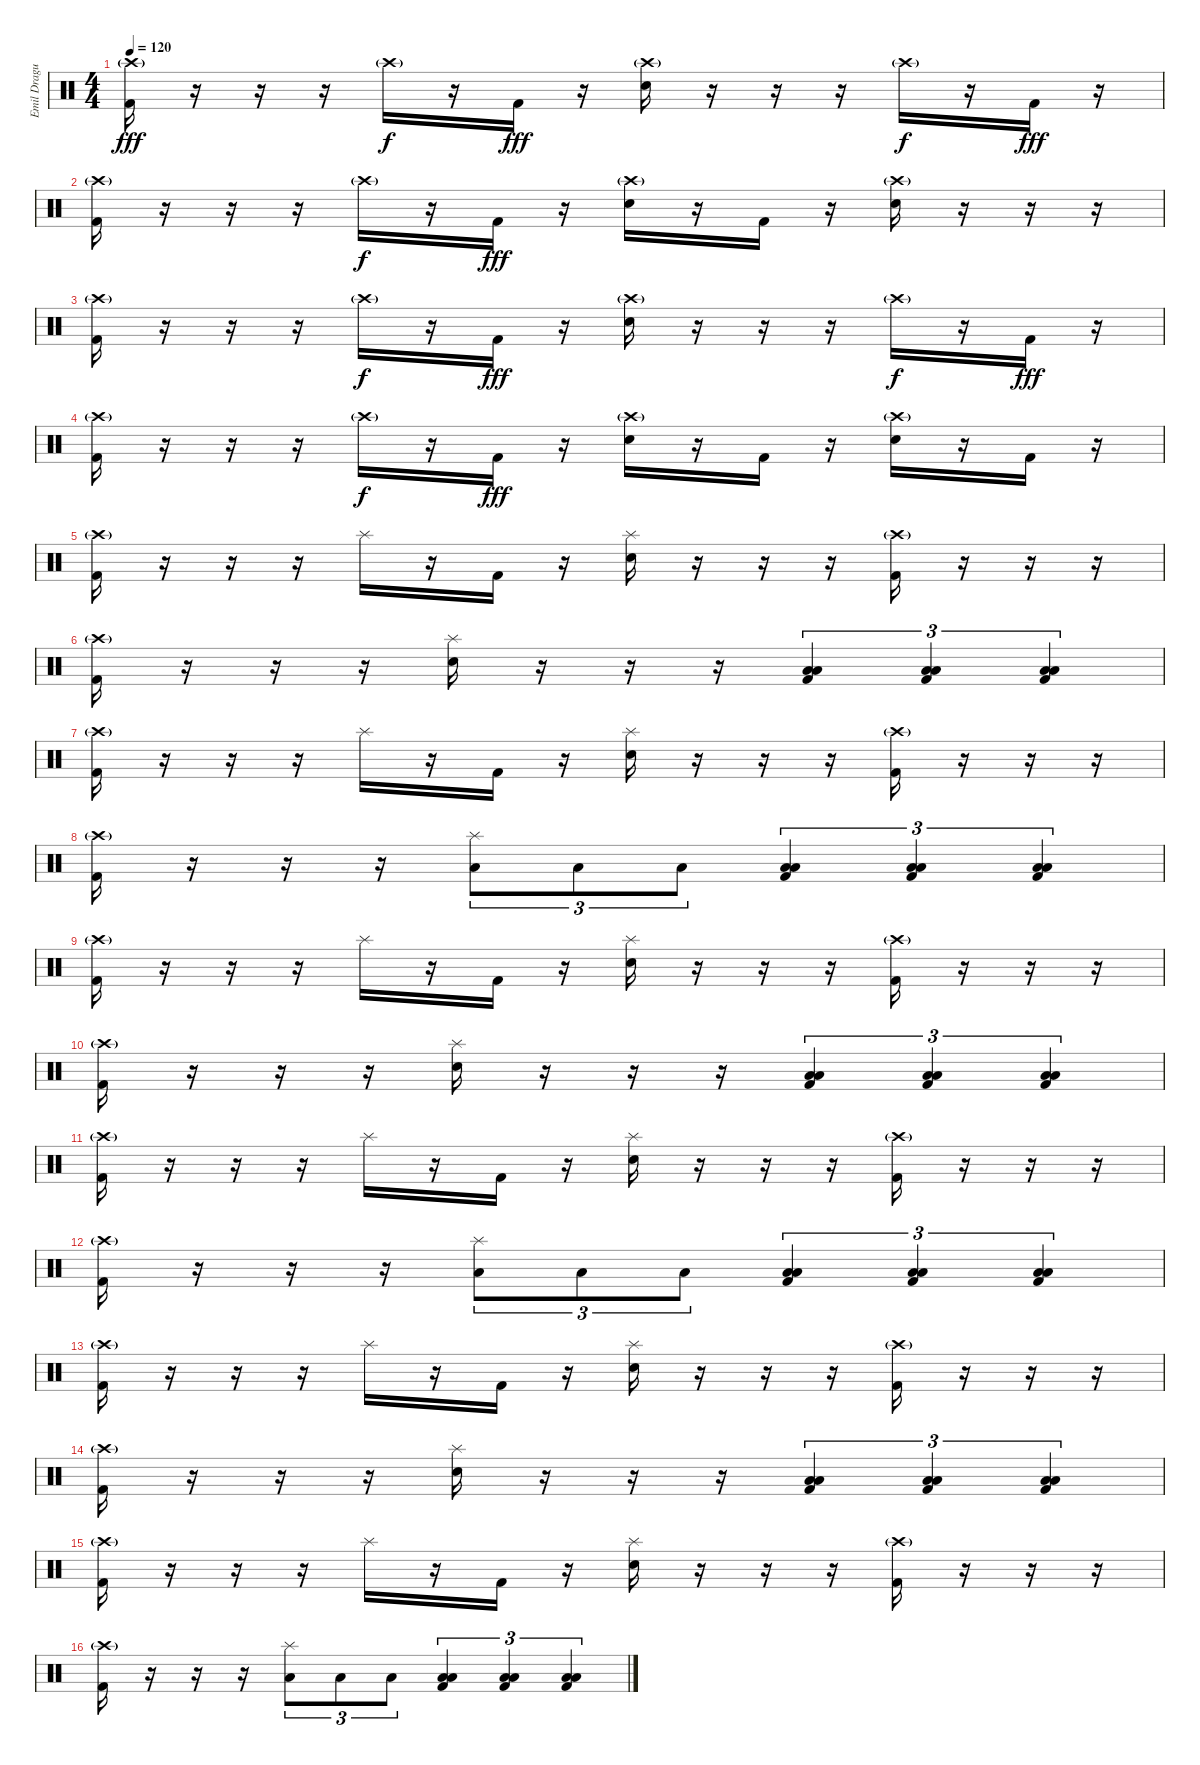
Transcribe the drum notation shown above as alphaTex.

\track ("Emil Dragutinovic" "Emil Dragu") {instrument percussion}
\staff {score}
\articulation defaults
\ts (4 4)
\tempo 120
\clef neutral
\ks c
("Crash high (hit)"{g} "Kick (hit) 2").16{dy fff} r.16 r.16 r.16 "Crash high (hit)"{g}.16{dy f} r.16 "Kick (hit) 2".16{dy fff} r.16 ("Crash high (hit)"{g} "Electric Snare (hit)").16 r.16 r.16 r.16 "Crash high (hit)"{g}.16{dy f} r.16 "Kick (hit) 2".16{dy fff} r.16 |
("Crash high (hit)"{g} "Kick (hit) 2").16 r.16 r.16 r.16 "Crash high (hit)"{g}.16{dy f} r.16 "Kick (hit) 2".16{dy fff} r.16 ("Crash high (hit)"{g} "Electric Snare (hit)").16 r.16 "Kick (hit) 2".16 r.16 ("Crash high (hit)"{g} "Electric Snare (hit)").16 r.16 r.16 r.16 |
("Crash high (hit)"{g} "Kick (hit) 2").16 r.16 r.16 r.16 "Crash high (hit)"{g}.16{dy f} r.16 "Kick (hit) 2".16{dy fff} r.16 ("Crash high (hit)"{g} "Electric Snare (hit)").16 r.16 r.16 r.16 "Crash high (hit)"{g}.16{dy f} r.16 "Kick (hit) 2".16{dy fff} r.16 |
("Crash high (hit)"{g} "Kick (hit) 2").16 r.16 r.16 r.16 "Crash high (hit)"{g}.16{dy f} r.16 "Kick (hit) 2".16{dy fff} r.16 ("Crash high (hit)"{g} "Electric Snare (hit)").16 r.16 "Kick (hit) 2".16 r.16 ("Crash high (hit)"{g} "Electric Snare (hit)").16 r.16 "Kick (hit) 2".16 r.16 |
("Crash high (hit)"{g} "Kick (hit) 2").16 r.16 r.16 r.16 "Splash (hit)".16 r.16 "Kick (hit) 2".16 r.16 ("Splash (hit)" "Electric Snare (hit)").16 r.16 r.16 r.16 ("Crash high (hit)"{g} "Kick (hit) 2").16 r.16 r.16 r.16 |
("Crash high (hit)"{g} "Kick (hit) 2").16 r.16 r.16 r.16 ("Splash (hit)" "Electric Snare (hit)").16 r.16 r.16 r.16 ("Low Tom (hit)" "Low Floor Tom (hit)" "Kick (hit) 2").4{tu (3 2)} ("Low Tom (hit)" "Low Floor Tom (hit)" "Kick (hit) 2").4{tu (3 2)} ("Low Tom (hit)" "Low Floor Tom (hit)" "Kick (hit) 2").4{tu (3 2)} |
("Crash high (hit)"{g} "Kick (hit) 2").16 r.16 r.16 r.16 "Splash (hit)".16 r.16 "Kick (hit) 2".16 r.16 ("Splash (hit)" "Electric Snare (hit)").16 r.16 r.16 r.16 ("Crash high (hit)"{g} "Kick (hit) 2").16 r.16 r.16 r.16 |
("Crash high (hit)"{g} "Kick (hit) 2").16 r.16 r.16 r.16 ("Splash (hit)" "Low Tom (hit)").8{tu (3 2)} "Low Floor Tom (hit)".8{tu (3 2)} "Low Floor Tom (hit)".8{tu (3 2)} ("Low Tom (hit)" "Low Floor Tom (hit)" "Kick (hit) 2").4{tu (3 2)} ("Low Tom (hit)" "Low Floor Tom (hit)" "Kick (hit) 2").4{tu (3 2)} ("Low Tom (hit)" "Low Floor Tom (hit)" "Kick (hit) 2").4{tu (3 2)} |
("Crash high (hit)"{g} "Kick (hit) 2").16 r.16 r.16 r.16 "Splash (hit)".16 r.16 "Kick (hit) 2".16 r.16 ("Splash (hit)" "Electric Snare (hit)").16 r.16 r.16 r.16 ("Crash high (hit)"{g} "Kick (hit) 2").16 r.16 r.16 r.16 |
("Crash high (hit)"{g} "Kick (hit) 2").16 r.16 r.16 r.16 ("Splash (hit)" "Electric Snare (hit)").16 r.16 r.16 r.16 ("Low Tom (hit)" "Low Floor Tom (hit)" "Kick (hit) 2").4{tu (3 2)} ("Low Tom (hit)" "Low Floor Tom (hit)" "Kick (hit) 2").4{tu (3 2)} ("Low Tom (hit)" "Low Floor Tom (hit)" "Kick (hit) 2").4{tu (3 2)} |
("Crash high (hit)"{g} "Kick (hit) 2").16 r.16 r.16 r.16 "Splash (hit)".16 r.16 "Kick (hit) 2".16 r.16 ("Splash (hit)" "Electric Snare (hit)").16 r.16 r.16 r.16 ("Crash high (hit)"{g} "Kick (hit) 2").16 r.16 r.16 r.16 |
("Crash high (hit)"{g} "Kick (hit) 2").16 r.16 r.16 r.16 ("Splash (hit)" "Low Tom (hit)").8{tu (3 2)} "Low Floor Tom (hit)".8{tu (3 2)} "Low Floor Tom (hit)".8{tu (3 2)} ("Low Tom (hit)" "Low Floor Tom (hit)" "Kick (hit) 2").4{tu (3 2)} ("Low Tom (hit)" "Low Floor Tom (hit)" "Kick (hit) 2").4{tu (3 2)} ("Low Tom (hit)" "Low Floor Tom (hit)" "Kick (hit) 2").4{tu (3 2)} |
("Crash high (hit)"{g} "Kick (hit) 2").16 r.16 r.16 r.16 "Splash (hit)".16 r.16 "Kick (hit) 2".16 r.16 ("Splash (hit)" "Electric Snare (hit)").16 r.16 r.16 r.16 ("Crash high (hit)"{g} "Kick (hit) 2").16 r.16 r.16 r.16 |
("Crash high (hit)"{g} "Kick (hit) 2").16 r.16 r.16 r.16 ("Splash (hit)" "Electric Snare (hit)").16 r.16 r.16 r.16 ("Low Tom (hit)" "Low Floor Tom (hit)" "Kick (hit) 2").4{tu (3 2)} ("Low Tom (hit)" "Low Floor Tom (hit)" "Kick (hit) 2").4{tu (3 2)} ("Low Tom (hit)" "Low Floor Tom (hit)" "Kick (hit) 2").4{tu (3 2)} |
("Crash high (hit)"{g} "Kick (hit) 2").16 r.16 r.16 r.16 "Splash (hit)".16 r.16 "Kick (hit) 2".16 r.16 ("Splash (hit)" "Electric Snare (hit)").16 r.16 r.16 r.16 ("Crash high (hit)"{g} "Kick (hit) 2").16 r.16 r.16 r.16 |
("Crash high (hit)"{g} "Kick (hit) 2").16 r.16 r.16 r.16 ("Splash (hit)" "Low Tom (hit)").8{tu (3 2)} "Low Floor Tom (hit)".8{tu (3 2)} "Low Floor Tom (hit)".8{tu (3 2)} ("Low Tom (hit)" "Low Floor Tom (hit)" "Kick (hit) 2").4{tu (3 2)} ("Low Tom (hit)" "Low Floor Tom (hit)" "Kick (hit) 2").4{tu (3 2)} ("Low Tom (hit)" "Low Floor Tom (hit)" "Kick (hit) 2").4{tu (3 2)}
